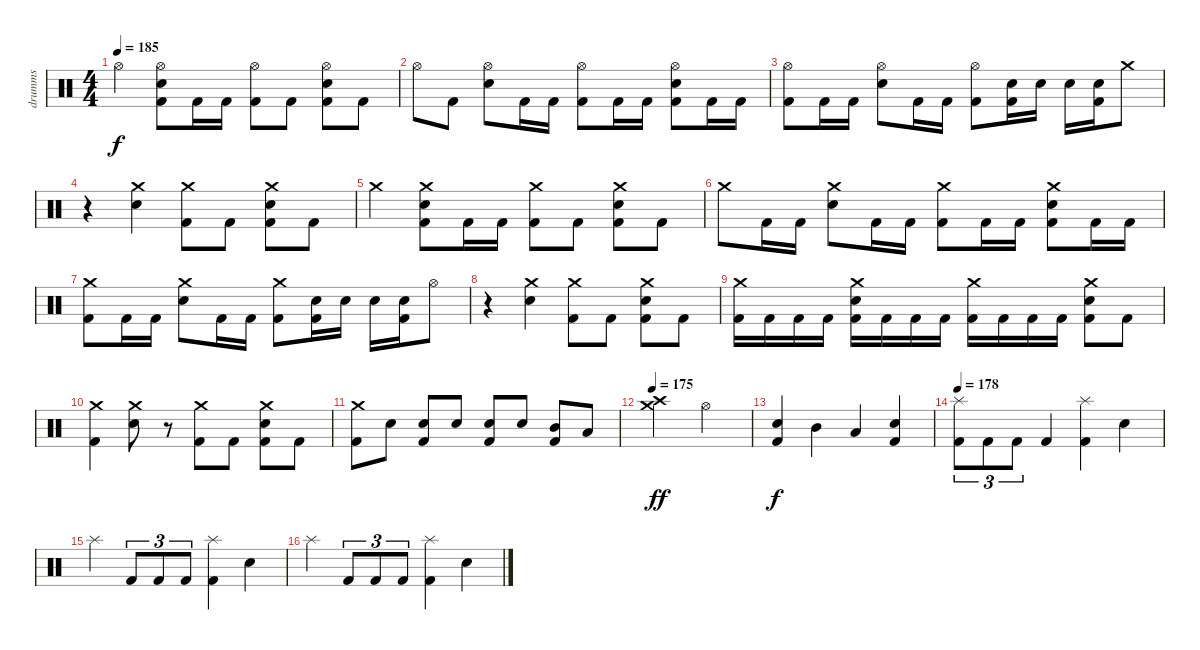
\track ("drumms" "drumms") {instrument percussion}
\staff {score}
\articulation defaults
\ts (4 4)
\tempo 185
\clef neutral
\ks c "Hi-Hat (open)".4{dy f}
("Hi-Hat (open)" "Electric Snare (hit)" "Kick (hit) 2").8 "Kick (hit) 2".16 "Kick (hit) 2".16 ("Hi-Hat (open)" "Kick (hit) 2").8 "Kick (hit) 2".8 ("Hi-Hat (open)" "Electric Snare (hit)" "Kick (hit) 2").8 "Kick (hit) 2".8 |
"Hi-Hat (open)".8 "Kick (hit) 2".8 ("Hi-Hat (open)" "Electric Snare (hit)").8 "Kick (hit) 2".16 "Kick (hit) 2".16 ("Hi-Hat (open)" "Kick (hit) 2").8 "Kick (hit) 2".16 "Kick (hit) 2".16 ("Hi-Hat (open)" "Electric Snare (hit)" "Kick (hit) 2").8 "Kick (hit) 2".16 "Kick (hit) 2".16 |
("Hi-Hat (open)" "Kick (hit) 2").8 "Kick (hit) 2".16 "Kick (hit) 2".16 ("Hi-Hat (open)" "Electric Snare (hit)").8 "Kick (hit) 2".16 "Kick (hit) 2".16 ("Hi-Hat (open)" "Kick (hit) 2").8 ("Electric Snare (hit)" "Kick (hit) 2").16 "Electric Snare (hit)".16 "Electric Snare (hit)".16 ("Electric Snare (hit)" "Kick (hit) 2").16 "Crash medium (hit)".8 |
r.4 ("Crash medium (hit)" "Electric Snare (hit)").4 ("Crash medium (hit)" "Kick (hit) 2").8 "Kick (hit) 2".8 ("Crash medium (hit)" "Electric Snare (hit)" "Kick (hit) 2").8 "Kick (hit) 2".8 |
"Crash medium (hit)".4 ("Crash medium (hit)" "Electric Snare (hit)" "Kick (hit) 2").8 "Kick (hit) 2".16 "Kick (hit) 2".16 ("Crash medium (hit)" "Kick (hit) 2").8 "Kick (hit) 2".8 ("Crash medium (hit)" "Electric Snare (hit)" "Kick (hit) 2").8 "Kick (hit) 2".8 |
"Crash medium (hit)".8 "Kick (hit) 2".16 "Kick (hit) 2".16 ("Crash medium (hit)" "Electric Snare (hit)").8 "Kick (hit) 2".16 "Kick (hit) 2".16 ("Crash medium (hit)" "Kick (hit) 2").8 "Kick (hit) 2".16 "Kick (hit) 2".16 ("Crash medium (hit)" "Electric Snare (hit)" "Kick (hit) 2").8 "Kick (hit) 2".16 "Kick (hit) 2".16 |
("Crash medium (hit)" "Kick (hit) 2").8 "Kick (hit) 2".16 "Kick (hit) 2".16 ("Crash medium (hit)" "Electric Snare (hit)").8 "Kick (hit) 2".16 "Kick (hit) 2".16 ("Crash medium (hit)" "Kick (hit) 2").8 ("Electric Snare (hit)" "Kick (hit) 2").16 "Electric Snare (hit)".16 "Electric Snare (hit)".16 ("Electric Snare (hit)" "Kick (hit) 2").16 "Hi-Hat (open)".8 |
r.4 ("Crash medium (hit)" "Electric Snare (hit)").4 ("Crash medium (hit)" "Kick (hit) 2").8 "Kick (hit) 2".8 ("Crash medium (hit)" "Electric Snare (hit)" "Kick (hit) 2").8 "Kick (hit) 2".8 |
("Crash medium (hit)" "Kick (hit) 2").16 "Kick (hit) 2".16 "Kick (hit) 2".16 "Kick (hit) 2".16 ("Crash medium (hit)" "Electric Snare (hit)" "Kick (hit) 2").16 "Kick (hit) 2".16 "Kick (hit) 2".16 "Kick (hit) 2".16 ("Crash medium (hit)" "Kick (hit) 2").16 "Kick (hit) 2".16 "Kick (hit) 2".16 "Kick (hit) 2".16 ("Crash medium (hit)" "Electric Snare (hit)" "Kick (hit) 2").8 "Kick (hit) 2".8 |
("Crash medium (hit)" "Kick (hit) 2").4 ("Crash medium (hit)" "Electric Snare (hit)").8 r.8 ("Crash medium (hit)" "Kick (hit) 2").8 "Kick (hit) 2".8 ("Crash medium (hit)" "Electric Snare (hit)" "Kick (hit) 2").8 "Kick (hit) 2".8 |
("Crash medium (hit)" "Kick (hit) 2").8 "Electric Snare (hit)".8 ("Electric Snare (hit)" "Kick (hit) 2").8 "Electric Snare (hit)".8 ("Electric Snare (hit)" "Kick (hit) 2").8 "Electric Snare (hit)".8 ("Mid Tom (hit)" "Kick (hit) 2").8 "Low Tom (hit)".8 |
\tempo 175
("Crash high (hit)" "Crash medium (hit)").2{dy ff} "Hi-Hat (open)".2 |
("Electric Snare (hit)" "Kick (hit) 2").4{dy f} "Mid Tom (hit)".4 "Low Tom (hit)".4 ("Electric Snare (hit)" "Kick (hit) 2").4 |
\tempo 178
("Splash (hit)" "Kick (hit) 2").8{tu (3 2)} "Kick (hit) 2".8{tu (3 2)} "Kick (hit) 2".8{tu (3 2)} "Kick (hit) 2".4 ("Splash (hit)" "Kick (hit) 2").4 "Electric Snare (hit)".4 |
"Splash (hit)".4 "Kick (hit) 2".8{tu (3 2)} "Kick (hit) 2".8{tu (3 2)} "Kick (hit) 2".8{tu (3 2)} ("Splash (hit)" "Kick (hit) 2").4 "Electric Snare (hit)".4 |
"Splash (hit)".4 "Kick (hit) 2".8{tu (3 2)} "Kick (hit) 2".8{tu (3 2)} "Kick (hit) 2".8{tu (3 2)} ("Splash (hit)" "Kick (hit) 2").4 "Electric Snare (hit)".4
